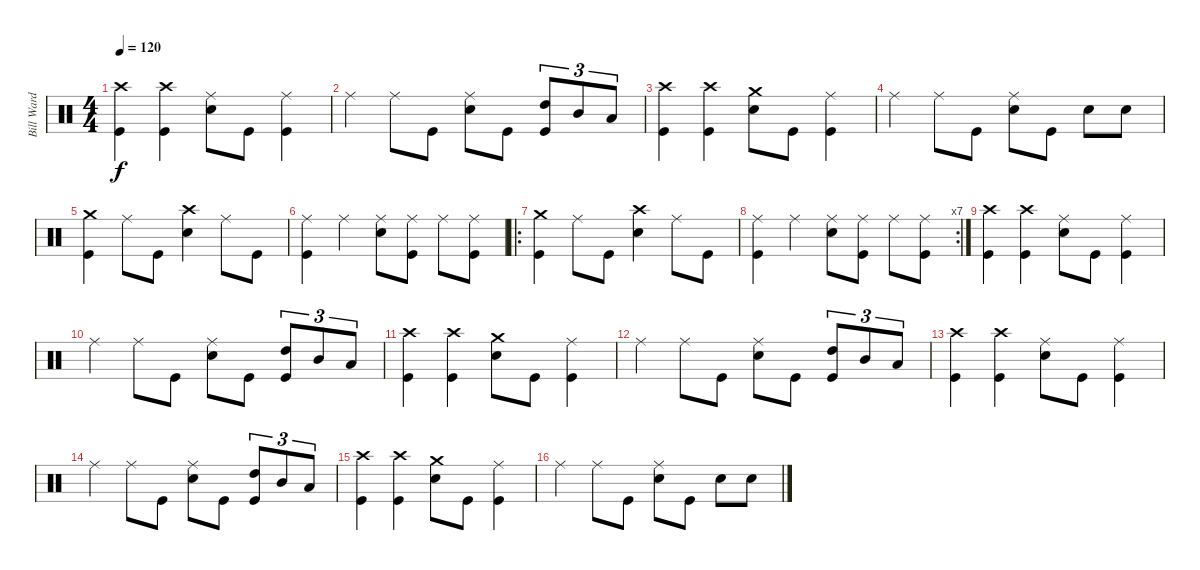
\track ("Bill Ward" "Bill Ward") {instrument percussion}
\staff {score}
\articulation defaults
\ts (4 4)
\tempo 120
\clef neutral
\ks c
("Crash high (hit)" "Kick (hit)").4{dy f} ("Crash high (hit)" "Kick (hit)").4 ("Ride (middle)" "Electric Snare (hit)").8 "Kick (hit)".8 ("Ride (middle)" "Kick (hit)").4 |
"Ride (middle)".4 "Ride (middle)".8 "Kick (hit)".8 ("Ride (middle)" "Electric Snare (hit)").8 "Kick (hit)".8 ("High Tom (hit)" "Kick (hit)").8{tu (3 2)} "Mid Tom (hit)".8{tu (3 2)} "Low Tom (hit)".8{tu (3 2)} |
("Crash high (hit)" "Kick (hit)").4 ("Crash high (hit)" "Kick (hit)").4 ("Crash medium (hit)" "Electric Snare (hit)").8 "Kick (hit)".8 ("Ride (middle)" "Kick (hit)").4 |
"Ride (middle)".4 "Ride (middle)".8 "Kick (hit)".8 ("Ride (middle)" "Electric Snare (hit)").8 "Kick (hit)".8 "Electric Snare (hit)".8 "Electric Snare (hit)".8 |
("Crash medium (hit)" "Kick (hit)").4 "Ride (middle)".8 "Kick (hit)".8 ("Crash high (hit)" "Electric Snare (hit)").4 "Ride (middle)".8 "Kick (hit)".8 |
("Ride (middle)" "Kick (hit)").4 "Ride (middle)".4 ("Ride (middle)" "Electric Snare (hit)").8 ("Ride (middle)" "Kick (hit)").8 "Ride (middle)".8 ("Ride (middle)" "Kick (hit)").8 |
\ro
("Crash medium (hit)" "Kick (hit)").4 "Ride (middle)".8 "Kick (hit)".8 ("Crash high (hit)" "Electric Snare (hit)").4 "Ride (middle)".8 "Kick (hit)".8 |
\rc 7
("Ride (middle)" "Kick (hit)").4 "Ride (middle)".4 ("Ride (middle)" "Electric Snare (hit)").8 ("Ride (middle)" "Kick (hit)").8 "Ride (middle)".8 ("Ride (middle)" "Kick (hit)").8 |
("Crash high (hit)" "Kick (hit)").4 ("Crash high (hit)" "Kick (hit)").4 ("Ride (middle)" "Electric Snare (hit)").8 "Kick (hit)".8 ("Ride (middle)" "Kick (hit)").4 |
"Ride (middle)".4 "Ride (middle)".8 "Kick (hit)".8 ("Ride (middle)" "Electric Snare (hit)").8 "Kick (hit)".8 ("High Tom (hit)" "Kick (hit)").8{tu (3 2)} "Mid Tom (hit)".8{tu (3 2)} "Low Tom (hit)".8{tu (3 2)} |
("Crash high (hit)" "Kick (hit)").4 ("Crash high (hit)" "Kick (hit)").4 ("Crash medium (hit)" "Electric Snare (hit)").8 "Kick (hit)".8 ("Ride (middle)" "Kick (hit)").4 |
"Ride (middle)".4 "Ride (middle)".8 "Kick (hit)".8 ("Ride (middle)" "Electric Snare (hit)").8 "Kick (hit)".8 ("High Tom (hit)" "Kick (hit)").8{tu (3 2)} "Mid Tom (hit)".8{tu (3 2)} "Low Tom (hit)".8{tu (3 2)} |
("Crash high (hit)" "Kick (hit)").4 ("Crash high (hit)" "Kick (hit)").4 ("Ride (middle)" "Electric Snare (hit)").8 "Kick (hit)".8 ("Ride (middle)" "Kick (hit)").4 |
"Ride (middle)".4 "Ride (middle)".8 "Kick (hit)".8 ("Ride (middle)" "Electric Snare (hit)").8 "Kick (hit)".8 ("High Tom (hit)" "Kick (hit)").8{tu (3 2)} "Mid Tom (hit)".8{tu (3 2)} "Low Tom (hit)".8{tu (3 2)} |
("Crash high (hit)" "Kick (hit)").4 ("Crash high (hit)" "Kick (hit)").4 ("Crash medium (hit)" "Electric Snare (hit)").8 "Kick (hit)".8 ("Ride (middle)" "Kick (hit)").4 |
"Ride (middle)".4 "Ride (middle)".8 "Kick (hit)".8 ("Ride (middle)" "Electric Snare (hit)").8 "Kick (hit)".8 "Electric Snare (hit)".8 "Electric Snare (hit)".8
